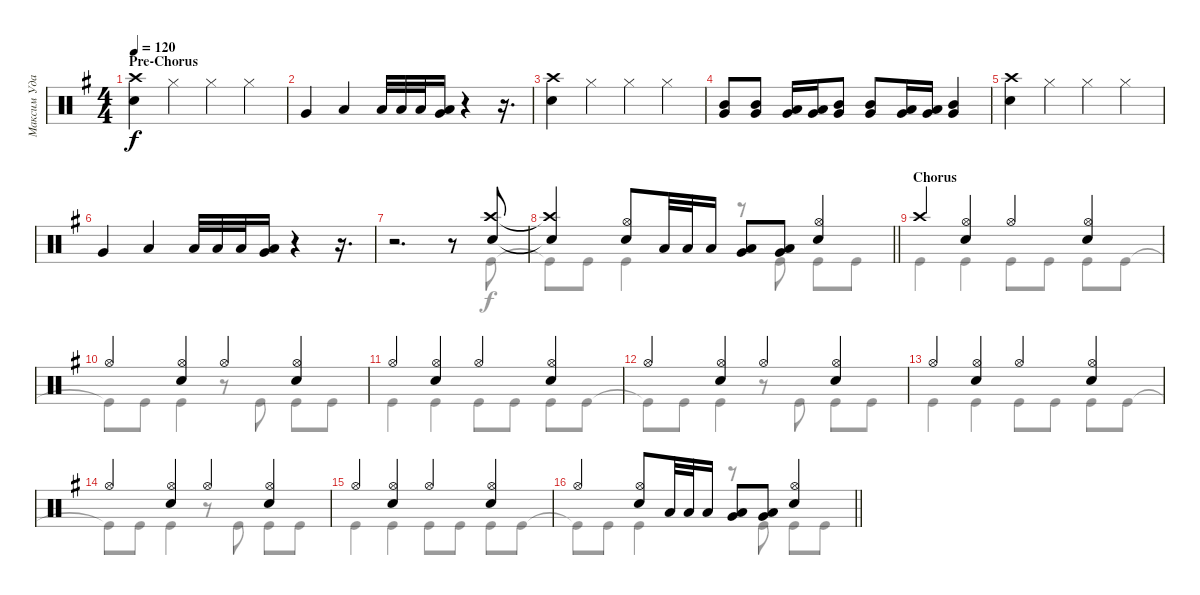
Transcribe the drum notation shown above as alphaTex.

\track ("Максим Удалов" "Максим Уда") {instrument percussion}
\staff {score}
\articulation defaults
\voice
\ts (4 4)
\section ("" "Pre-Chorus")
\tempo 120
\clef neutral
\ks g
("Crash high (hit)" "Snare (hit) 2").4{dy f} "Hi-Hat (closed)".4 "Hi-Hat (closed)".4 "Hi-Hat (closed)".4 |
"Very Low Tom (hit)".4 "Low Tom (hit)".4 "Low Tom (hit)".32 "Low Tom (hit)".32 "Low Tom (hit)".32 ("Low Tom (hit)" "Very Low Tom (hit)").16 r.4 r.16{d} |
("Crash high (hit)" "Snare (hit) 2").4 "Hi-Hat (closed)".4 "Hi-Hat (closed)".4 "Hi-Hat (closed)".4 |
("Mid Tom (hit)" "Very Low Tom (hit)").8 ("Very Low Tom (hit)" "Mid Tom (hit)").8 ("Very Low Tom (hit)" "Low Tom (hit)").16 ("Very Low Tom (hit)" "Low Tom (hit)").16 ("Very Low Tom (hit)" "Mid Tom (hit)").8 ("Very Low Tom (hit)" "Mid Tom (hit)").8 ("Very Low Tom (hit)" "Low Tom (hit)").16 ("Very Low Tom (hit)" "Low Tom (hit)").16 ("Very Low Tom (hit)" "Mid Tom (hit)").4 |
("Crash high (hit)" "Snare (hit) 2").4 "Hi-Hat (closed)".4 "Hi-Hat (closed)".4 "Hi-Hat (closed)".4 |
"Very Low Tom (hit)".4 "Low Tom (hit)".4 "Low Tom (hit)".32 "Low Tom (hit)".32 "Low Tom (hit)".32 ("Low Tom (hit)" "Very Low Tom (hit)").16 r.4 r.16{d} |
r.2{d} r.8 ("Crash high (hit)" "Snare (hit) 2").8 |
\barLineRight lightlight
("Crash high (hit)"{t} "Snare (hit) 2"{t}).4 ("Hi-Hat (open)" "Snare (hit) 2").8 "Low Tom (hit)".32 "Low Tom (hit)".32 "Low Tom (hit)".16 ("Very Low Tom (hit)" "Low Tom (hit)").8 ("Very Low Tom (hit)" "Low Tom (hit)").8 ("Snare (hit) 2" "Hi-Hat (open)").4 |
\section ("" "Chorus")
"Crash high (hit)".4 ("Snare (hit) 2" "Hi-Hat (open)").4 "Hi-Hat (open)".4 ("Snare (hit) 2" "Hi-Hat (open)").4 |
"Hi-Hat (open)".4 ("Hi-Hat (open)" "Snare (hit) 2").4 "Hi-Hat (open)".4 ("Hi-Hat (open)" "Snare (hit) 2").4 |
"Hi-Hat (open)".4 ("Snare (hit) 2" "Hi-Hat (open)").4 "Hi-Hat (open)".4 ("Snare (hit) 2" "Hi-Hat (open)").4 |
"Hi-Hat (open)".4 ("Hi-Hat (open)" "Snare (hit) 2").4 "Hi-Hat (open)".4 ("Hi-Hat (open)" "Snare (hit) 2").4 |
"Hi-Hat (open)".4 ("Snare (hit) 2" "Hi-Hat (open)").4 "Hi-Hat (open)".4 ("Snare (hit) 2" "Hi-Hat (open)").4 |
"Hi-Hat (open)".4 ("Hi-Hat (open)" "Snare (hit) 2").4 "Hi-Hat (open)".4 ("Hi-Hat (open)" "Snare (hit) 2").4 |
"Hi-Hat (open)".4 ("Snare (hit) 2" "Hi-Hat (open)").4 "Hi-Hat (open)".4 ("Snare (hit) 2" "Hi-Hat (open)").4 |
\barLineRight lightlight "Hi-Hat (open)".4
("Hi-Hat (open)" "Snare (hit) 2").8 "Low Tom (hit)".32 "Low Tom (hit)".32 "Low Tom (hit)".16 ("Very Low Tom (hit)" "Low Tom (hit)").8 ("Very Low Tom (hit)" "Low Tom (hit)").8 ("Snare (hit) 2" "Hi-Hat (open)").4
\voice
\clef neutral
\ottava regular
\simile none
\ks g
|
|
|
|
|
|
r.2{d} r.8 "Kick (hit)".8 |
\barLineRight lightlight "Kick (hit)"{t}.8 "Kick (hit)".8 "Kick (hit)".4
r.8 "Kick (hit)".8 "Kick (hit)".8 "Kick (hit)".8 |
"Kick (hit)".4 "Kick (hit)".4 "Kick (hit)".8 "Kick (hit)".8 "Kick (hit)".8 "Kick (hit)".8 |
"Kick (hit)"{t}.8 "Kick (hit)".8 "Kick (hit)".4 r.8 "Kick (hit)".8 "Kick (hit)".8 "Kick (hit)".8 |
"Kick (hit)".4 "Kick (hit)".4 "Kick (hit)".8 "Kick (hit)".8 "Kick (hit)".8 "Kick (hit)".8 |
"Kick (hit)"{t}.8 "Kick (hit)".8 "Kick (hit)".4 r.8 "Kick (hit)".8 "Kick (hit)".8 "Kick (hit)".8 |
"Kick (hit)".4 "Kick (hit)".4 "Kick (hit)".8 "Kick (hit)".8 "Kick (hit)".8 "Kick (hit)".8 |
"Kick (hit)"{t}.8 "Kick (hit)".8 "Kick (hit)".4 r.8 "Kick (hit)".8 "Kick (hit)".8 "Kick (hit)".8 |
"Kick (hit)".4 "Kick (hit)".4 "Kick (hit)".8 "Kick (hit)".8 "Kick (hit)".8 "Kick (hit)".8 |
\barLineRight lightlight "Kick (hit)"{t}.8 "Kick (hit)".8 "Kick (hit)".4
r.8 "Kick (hit)".8 "Kick (hit)".8 "Kick (hit)".8
